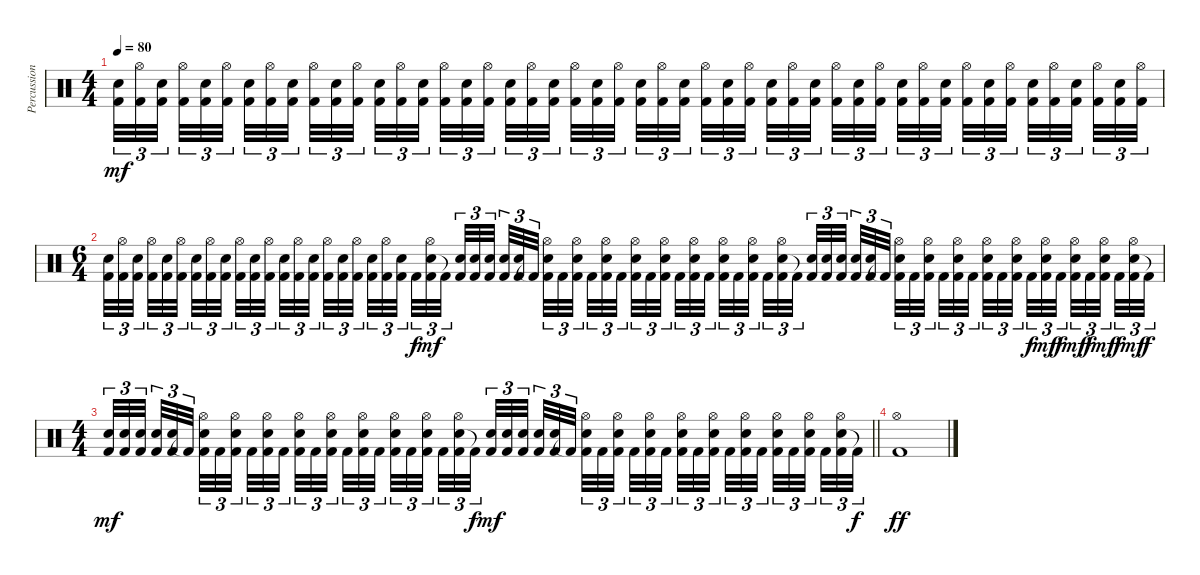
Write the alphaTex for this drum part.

\track ("Percussion" "Percussion") {instrument percussion}
\staff {score}
\articulation defaults
\ts (4 4)
\tempo 80
\clef neutral
\ks c
("Snare (hit) 2" "Kick (hit) 2").32{tu (3 2) dy mf} ("Hi-Hat (open)" "Kick (hit) 2").32{tu (3 2)} ("Snare (hit) 2" "Kick (hit) 2").32{tu (3 2) beam splitsecondary} ("Hi-Hat (open)" "Kick (hit) 2").32{tu (3 2)} ("Snare (hit) 2" "Kick (hit) 2").32{tu (3 2)} ("Hi-Hat (open)" "Kick (hit) 2").32{tu (3 2) beam splitsecondary} ("Snare (hit) 2" "Kick (hit) 2").32{tu (3 2)} ("Hi-Hat (open)" "Kick (hit) 2").32{tu (3 2)} ("Snare (hit) 2" "Kick (hit) 2").32{tu (3 2) beam splitsecondary} ("Hi-Hat (open)" "Kick (hit) 2").32{tu (3 2)} ("Snare (hit) 2" "Kick (hit) 2").32{tu (3 2)} ("Hi-Hat (open)" "Kick (hit) 2").32{tu (3 2)} ("Snare (hit) 2" "Kick (hit) 2").32{tu (3 2)} ("Hi-Hat (open)" "Kick (hit) 2").32{tu (3 2)} ("Snare (hit) 2" "Kick (hit) 2").32{tu (3 2) beam splitsecondary} ("Hi-Hat (open)" "Kick (hit) 2").32{tu (3 2)} ("Snare (hit) 2" "Kick (hit) 2").32{tu (3 2)} ("Hi-Hat (open)" "Kick (hit) 2").32{tu (3 2) beam splitsecondary} ("Snare (hit) 2" "Kick (hit) 2").32{tu (3 2)} ("Hi-Hat (open)" "Kick (hit) 2").32{tu (3 2)} ("Snare (hit) 2" "Kick (hit) 2").32{tu (3 2) beam splitsecondary} ("Hi-Hat (open)" "Kick (hit) 2").32{tu (3 2)} ("Snare (hit) 2" "Kick (hit) 2").32{tu (3 2)} ("Hi-Hat (open)" "Kick (hit) 2").32{tu (3 2)} ("Snare (hit) 2" "Kick (hit) 2").32{tu (3 2)} ("Hi-Hat (open)" "Kick (hit) 2").32{tu (3 2)} ("Snare (hit) 2" "Kick (hit) 2").32{tu (3 2) beam splitsecondary} ("Hi-Hat (open)" "Kick (hit) 2").32{tu (3 2)} ("Snare (hit) 2" "Kick (hit) 2").32{tu (3 2)} ("Hi-Hat (open)" "Kick (hit) 2").32{tu (3 2) beam splitsecondary} ("Snare (hit) 2" "Kick (hit) 2").32{tu (3 2)} ("Hi-Hat (open)" "Kick (hit) 2").32{tu (3 2)} ("Snare (hit) 2" "Kick (hit) 2").32{tu (3 2) beam splitsecondary} ("Hi-Hat (open)" "Kick (hit) 2").32{tu (3 2)} ("Snare (hit) 2" "Kick (hit) 2").32{tu (3 2)} ("Hi-Hat (open)" "Kick (hit) 2").32{tu (3 2)} ("Snare (hit) 2" "Kick (hit) 2").32{tu (3 2)} ("Hi-Hat (open)" "Kick (hit) 2").32{tu (3 2)} ("Snare (hit) 2" "Kick (hit) 2").32{tu (3 2) beam splitsecondary} ("Hi-Hat (open)" "Kick (hit) 2").32{tu (3 2)} ("Snare (hit) 2" "Kick (hit) 2").32{tu (3 2)} ("Hi-Hat (open)" "Kick (hit) 2").32{tu (3 2) beam splitsecondary} ("Snare (hit) 2" "Kick (hit) 2").32{tu (3 2)} ("Hi-Hat (open)" "Kick (hit) 2").32{tu (3 2)} ("Snare (hit) 2" "Kick (hit) 2").32{tu (3 2) beam splitsecondary} ("Hi-Hat (open)" "Kick (hit) 2").32{tu (3 2)} ("Snare (hit) 2" "Kick (hit) 2").32{tu (3 2)} ("Hi-Hat (open)" "Kick (hit) 2").32{tu (3 2)} |
\ts (6 4)
("Snare (hit) 2" "Kick (hit) 2").32{tu (3 2)} ("Hi-Hat (open)" "Kick (hit) 2").32{tu (3 2)} ("Snare (hit) 2" "Kick (hit) 2").32{tu (3 2) beam splitsecondary} ("Hi-Hat (open)" "Kick (hit) 2").32{tu (3 2)} ("Snare (hit) 2" "Kick (hit) 2").32{tu (3 2)} ("Hi-Hat (open)" "Kick (hit) 2").32{tu (3 2) beam splitsecondary} ("Snare (hit) 2" "Kick (hit) 2").32{tu (3 2)} ("Hi-Hat (open)" "Kick (hit) 2").32{tu (3 2)} ("Snare (hit) 2" "Kick (hit) 2").32{tu (3 2) beam splitsecondary} ("Hi-Hat (open)" "Kick (hit) 2").32{tu (3 2)} ("Snare (hit) 2" "Kick (hit) 2").32{tu (3 2)} ("Hi-Hat (open)" "Kick (hit) 2").32{tu (3 2) beam splitsecondary} ("Snare (hit) 2" "Kick (hit) 2").32{tu (3 2)} ("Hi-Hat (open)" "Kick (hit) 2").32{tu (3 2)} ("Snare (hit) 2" "Kick (hit) 2").32{tu (3 2) beam splitsecondary} ("Hi-Hat (open)" "Kick (hit) 2").32{tu (3 2)} ("Snare (hit) 2" "Kick (hit) 2").32{tu (3 2)} ("Hi-Hat (open)" "Kick (hit) 2").32{tu (3 2) beam splitsecondary} ("Snare (hit) 2" "Kick (hit) 2").32{tu (3 2)} ("Hi-Hat (open)" "Kick (hit) 2").32{tu (3 2)} ("Snare (hit) 2" "Kick (hit) 2").32{tu (3 2) beam splitsecondary} "Kick (hit) 2".32{tu (3 2) dy f} ("Snare (hit) 2" "Hi-Hat (open)" "Kick (hit) 2").32{tu (3 2) dy mf} "Kick (hit) 2"{t}.32{tu (3 2) beam splitsecondary} ("Snare (hit) 2" "Kick (hit) 2").32{tu (3 2)} ("Snare (hit) 2" "Kick (hit) 2").32{tu (3 2)} ("Snare (hit) 2" "Kick (hit) 2").32{tu (3 2) beam splitsecondary} ("Snare (hit) 2" "Kick (hit) 2").32{tu (3 2)} ("Snare (hit) 2" "Kick (hit) 2").32{tu (3 2)} "Kick (hit) 2"{t}.32{tu (3 2) beam splitsecondary} ("Snare (hit) 2" "Hi-Hat (open)" "Kick (hit) 2").32{tu (3 2)} "Kick (hit) 2".32{tu (3 2)} ("Snare (hit) 2" "Hi-Hat (open)" "Kick (hit) 2").32{tu (3 2) beam splitsecondary} "Kick (hit) 2".32{tu (3 2)} ("Snare (hit) 2" "Hi-Hat (open)" "Kick (hit) 2").32{tu (3 2)} "Kick (hit) 2".32{tu (3 2)} ("Snare (hit) 2" "Hi-Hat (open)" "Kick (hit) 2").32{tu (3 2)} "Kick (hit) 2".32{tu (3 2)} ("Snare (hit) 2" "Hi-Hat (open)" "Kick (hit) 2").32{tu (3 2) beam splitsecondary} "Kick (hit) 2".32{tu (3 2)} ("Snare (hit) 2" "Hi-Hat (open)" "Kick (hit) 2").32{tu (3 2)} "Kick (hit) 2".32{tu (3 2) beam splitsecondary} ("Snare (hit) 2" "Hi-Hat (open)" "Kick (hit) 2").32{tu (3 2)} "Kick (hit) 2".32{tu (3 2)} ("Snare (hit) 2" "Hi-Hat (open)" "Kick (hit) 2").32{tu (3 2) beam splitsecondary} "Kick (hit) 2".32{tu (3 2)} ("Snare (hit) 2" "Hi-Hat (open)" "Kick (hit) 2").32{tu (3 2)} "Kick (hit) 2"{t}.32{tu (3 2) beam splitsecondary} ("Snare (hit) 2" "Kick (hit) 2").32{tu (3 2)} ("Snare (hit) 2" "Kick (hit) 2").32{tu (3 2)} ("Snare (hit) 2" "Kick (hit) 2").32{tu (3 2) beam splitsecondary} ("Snare (hit) 2" "Kick (hit) 2").32{tu (3 2)} ("Snare (hit) 2" "Kick (hit) 2").32{tu (3 2)} "Kick (hit) 2"{t}.32{tu (3 2) beam splitsecondary} ("Snare (hit) 2" "Hi-Hat (open)" "Kick (hit) 2").32{tu (3 2)} "Kick (hit) 2".32{tu (3 2)} ("Snare (hit) 2" "Hi-Hat (open)" "Kick (hit) 2").32{tu (3 2) beam splitsecondary} "Kick (hit) 2".32{tu (3 2)} ("Snare (hit) 2" "Hi-Hat (open)" "Kick (hit) 2").32{tu (3 2)} "Kick (hit) 2".32{tu (3 2) beam splitsecondary} ("Snare (hit) 2" "Hi-Hat (open)" "Kick (hit) 2").32{tu (3 2)} "Kick (hit) 2".32{tu (3 2)} ("Snare (hit) 2" "Hi-Hat (open)" "Kick (hit) 2").32{tu (3 2) beam splitsecondary} "Kick (hit) 2".32{tu (3 2) dy f} ("Snare (hit) 2" "Hi-Hat (open)" "Kick (hit) 2").32{tu (3 2) dy mf} "Kick (hit) 2".32{tu (3 2) dy f beam splitsecondary} ("Snare (hit) 2" "Hi-Hat (open)" "Kick (hit) 2").32{tu (3 2) dy mf} "Kick (hit) 2".32{tu (3 2) dy f} ("Snare (hit) 2" "Hi-Hat (open)" "Kick (hit) 2").32{tu (3 2) dy mf beam splitsecondary} "Kick (hit) 2".32{tu (3 2) dy f} ("Snare (hit) 2" "Hi-Hat (open)" "Kick (hit) 2").32{tu (3 2) dy mf} "Kick (hit) 2"{t}.32{tu (3 2) dy f} |
\ts (4 4)
\barLineRight lightlight
("Snare (hit) 2" "Kick (hit) 2").32{tu (3 2) dy mf} ("Snare (hit) 2" "Kick (hit) 2").32{tu (3 2)} ("Snare (hit) 2" "Kick (hit) 2").32{tu (3 2) beam splitsecondary} ("Snare (hit) 2" "Kick (hit) 2").32{tu (3 2)} ("Snare (hit) 2" "Kick (hit) 2").32{tu (3 2)} "Kick (hit) 2"{t}.32{tu (3 2) beam splitsecondary} ("Snare (hit) 2" "Hi-Hat (open)" "Kick (hit) 2").32{tu (3 2)} "Kick (hit) 2".32{tu (3 2)} ("Snare (hit) 2" "Hi-Hat (open)" "Kick (hit) 2").32{tu (3 2) beam splitsecondary} "Kick (hit) 2".32{tu (3 2)} ("Snare (hit) 2" "Hi-Hat (open)" "Kick (hit) 2").32{tu (3 2)} "Kick (hit) 2".32{tu (3 2)} ("Snare (hit) 2" "Hi-Hat (open)" "Kick (hit) 2").32{tu (3 2)} "Kick (hit) 2".32{tu (3 2)} ("Snare (hit) 2" "Hi-Hat (open)" "Kick (hit) 2").32{tu (3 2) beam splitsecondary} "Kick (hit) 2".32{tu (3 2)} ("Snare (hit) 2" "Hi-Hat (open)" "Kick (hit) 2").32{tu (3 2)} "Kick (hit) 2".32{tu (3 2) beam splitsecondary} ("Snare (hit) 2" "Hi-Hat (open)" "Kick (hit) 2").32{tu (3 2)} "Kick (hit) 2".32{tu (3 2)} ("Snare (hit) 2" "Hi-Hat (open)" "Kick (hit) 2").32{tu (3 2) beam splitsecondary} "Kick (hit) 2".32{tu (3 2)} ("Snare (hit) 2" "Hi-Hat (open)" "Kick (hit) 2").32{tu (3 2)} "Kick (hit) 2"{t}.32{tu (3 2) dy f} ("Snare (hit) 2" "Kick (hit) 2").32{tu (3 2) dy mf} ("Snare (hit) 2" "Kick (hit) 2").32{tu (3 2)} ("Snare (hit) 2" "Kick (hit) 2").32{tu (3 2) beam splitsecondary} ("Snare (hit) 2" "Kick (hit) 2").32{tu (3 2)} ("Snare (hit) 2" "Kick (hit) 2").32{tu (3 2)} "Kick (hit) 2"{t}.32{tu (3 2) beam splitsecondary} ("Snare (hit) 2" "Hi-Hat (open)" "Kick (hit) 2").32{tu (3 2)} "Kick (hit) 2".32{tu (3 2)} ("Snare (hit) 2" "Hi-Hat (open)" "Kick (hit) 2").32{tu (3 2) beam splitsecondary} "Kick (hit) 2".32{tu (3 2)} ("Snare (hit) 2" "Hi-Hat (open)" "Kick (hit) 2").32{tu (3 2)} "Kick (hit) 2".32{tu (3 2)} ("Snare (hit) 2" "Hi-Hat (open)" "Kick (hit) 2").32{tu (3 2)} "Kick (hit) 2".32{tu (3 2)} ("Snare (hit) 2" "Hi-Hat (open)" "Kick (hit) 2").32{tu (3 2) beam splitsecondary} "Kick (hit) 2".32{tu (3 2)} ("Snare (hit) 2" "Hi-Hat (open)" "Kick (hit) 2").32{tu (3 2)} "Kick (hit) 2".32{tu (3 2) beam splitsecondary} ("Snare (hit) 2" "Hi-Hat (open)" "Kick (hit) 2").32{tu (3 2)} "Kick (hit) 2".32{tu (3 2)} ("Snare (hit) 2" "Hi-Hat (open)" "Kick (hit) 2").32{tu (3 2) beam splitsecondary} "Kick (hit) 2".32{tu (3 2)} ("Snare (hit) 2" "Hi-Hat (open)" "Kick (hit) 2").32{tu (3 2)} "Kick (hit) 2"{t}.32{tu (3 2) dy f} |
("Hi-Hat (open)" "Kick (hit) 2").1{dy ff}
